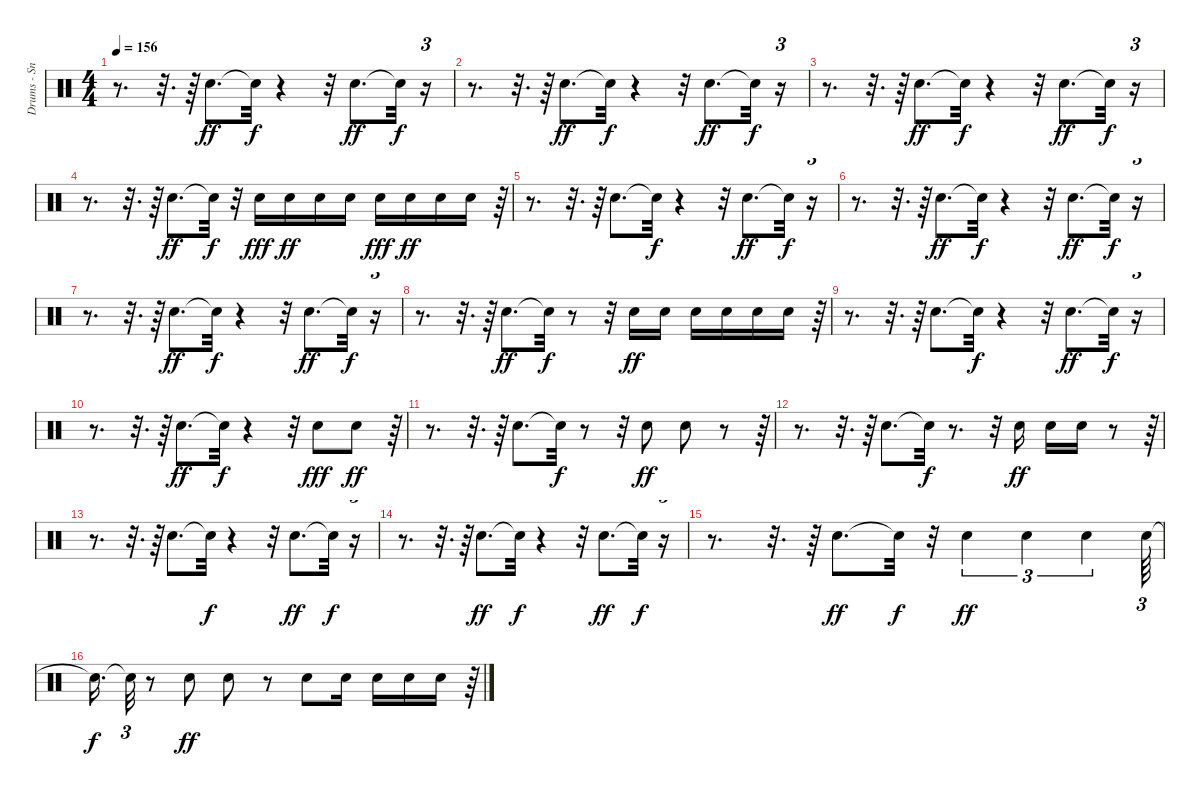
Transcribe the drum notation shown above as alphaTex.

\track ("Drums - Snare/Toms" "Drums - Sn") {instrument percussion}
\staff {score}
\articulation defaults
\ts (4 4)
\tempo 156
\clef neutral
\ks c
r.8{d dy ff} r.32{d} r.64 "Electric Snare (hit)".8{d} "Snare (hit)"{t}.32{dy f} r.4 r.32 "Electric Snare (hit)".8{d dy ff} "Snare (hit)"{t}.32{dy f} r.16{tu (3 2)} |
r.8{d} r.32{d} r.64 "Electric Snare (hit)".8{d dy ff} "Snare (hit)"{t}.32{dy f} r.4 r.32 "Electric Snare (hit)".8{d dy ff} "Snare (hit)"{t}.32{dy f} r.16{tu (3 2)} |
r.8{d} r.32{d} r.64 "Electric Snare (hit)".8{d dy ff} "Snare (hit)"{t}.32{dy f} r.4 r.32 "Electric Snare (hit)".8{d dy ff} "Snare (hit)"{t}.32{dy f} r.16{tu (3 2)} |
r.8{d} r.32{d} r.64 "Electric Snare (hit)".8{d dy ff} "Snare (hit)"{t}.32{dy f} r.32 "Electric Snare (hit)".16{dy fff} "Electric Snare (hit)".16{dy ff} "Electric Snare (hit)".16 "Electric Snare (hit)".16 "Electric Snare (hit)".16{dy fff} "Electric Snare (hit)".16{dy ff} "Electric Snare (hit)".16 "Electric Snare (hit)".16 r.64{tu (3 2)} |
r.8{d} r.32{d} r.64 "Electric Snare (hit)".8{d} "Snare (hit)"{t}.32{dy f} r.4 r.32 "Electric Snare (hit)".8{d dy ff} "Snare (hit)"{t}.32{dy f} r.16{tu (3 2)} |
r.8{d} r.32{d} r.64 "Electric Snare (hit)".8{d dy ff} "Snare (hit)"{t}.32{dy f} r.4 r.32 "Electric Snare (hit)".8{d dy ff} "Snare (hit)"{t}.32{dy f} r.16{tu (3 2)} |
r.8{d} r.32{d} r.64 "Electric Snare (hit)".8{d dy ff} "Snare (hit)"{t}.32{dy f} r.4 r.32 "Electric Snare (hit)".8{d dy ff} "Snare (hit)"{t}.32{dy f} r.16{tu (3 2)} |
r.8{d} r.32{d} r.64 "Electric Snare (hit)".8{d dy ff} "Snare (hit)"{t}.32{dy f} r.8 r.32 "Electric Snare (hit)".16{dy ff} "Electric Snare (hit)".16 "Electric Snare (hit)".16 "Electric Snare (hit)".16 "Electric Snare (hit)".16 "Electric Snare (hit)".16 r.64{tu (3 2)} |
r.8{d} r.32{d} r.64 "Electric Snare (hit)".8{d} "Snare (hit)"{t}.32{dy f} r.4 r.32 "Electric Snare (hit)".8{d dy ff} "Snare (hit)"{t}.32{dy f} r.16{tu (3 2)} |
r.8{d} r.32{d} r.64 "Electric Snare (hit)".8{d dy ff} "Snare (hit)"{t}.32{dy f} r.4 r.32 "Electric Snare (hit)".8{dy fff} "Electric Snare (hit)".8{dy ff} r.64{tu (3 2)} |
r.8{d} r.32{d} r.64 "Electric Snare (hit)".8{d} "Snare (hit)"{t}.32{dy f} r.8 r.32 "Electric Snare (hit)".8{dy ff} "Electric Snare (hit)".8 r.8 r.64{tu (3 2)} |
r.8{d} r.32{d} r.64 "Electric Snare (hit)".8{d} "Snare (hit)"{t}.32{dy f} r.8{d} r.32 "Electric Snare (hit)".16{dy ff} "Electric Snare (hit)".16 "Electric Snare (hit)".16 r.8 r.64{tu (3 2)} |
r.8{d} r.32{d} r.64 "Electric Snare (hit)".8{d} "Snare (hit)"{t}.32{dy f} r.4 r.32 "Electric Snare (hit)".8{d dy ff} "Snare (hit)"{t}.32{dy f} r.16{tu (3 2)} |
r.8{d} r.32{d} r.64 "Electric Snare (hit)".8{d dy ff} "Snare (hit)"{t}.32{dy f} r.4 r.32 "Electric Snare (hit)".8{d dy ff} "Snare (hit)"{t}.32{dy f} r.16{tu (3 2)} |
r.8{d} r.32{d} r.64 "Electric Snare (hit)".8{d dy ff} "Snare (hit)"{t}.32{dy f} r.32 "Electric Snare (hit)".4{tu (3 2) dy ff} "Electric Snare (hit)".4{tu (3 2)} "Electric Snare (hit)".4{tu (3 2)} "Electric Snare (hit)".64{tu (3 2)} |
"Snare (hit)"{t}.16{d dy f} "Snare (hit)"{t}.32{tu (3 2)} r.8 "Electric Snare (hit)".8{dy ff} "Electric Snare (hit)".8 r.8 "Electric Snare (hit)".8 "Electric Snare (hit)".16 "Electric Snare (hit)".16 "Electric Snare (hit)".16 "Electric Snare (hit)".16 r.64{tu (3 2)}
